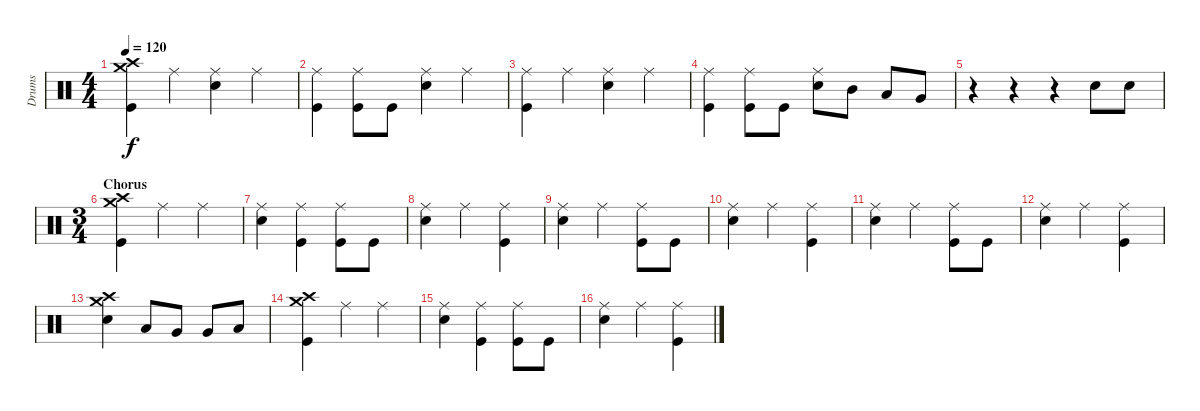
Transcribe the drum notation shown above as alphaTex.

\track ("Drums" "Drums") {instrument percussion}
\staff {score}
\articulation defaults
\ts (4 4)
\tempo 120
\clef neutral
\ks c
("Crash medium (hit)" "Crash high (hit)" "Kick (hit)").4{dy f} "Ride (middle)".4 ("Ride (middle)" "Snare (hit) 2").4 "Ride (middle)".4 |
("Ride (middle)" "Kick (hit)").4 ("Ride (middle)" "Kick (hit)").8 "Kick (hit)".8 ("Ride (middle)" "Snare (hit) 2").4 "Ride (middle)".4 |
("Ride (middle)" "Kick (hit)").4 "Ride (middle)".4 ("Ride (middle)" "Snare (hit) 2").4 "Ride (middle)".4 |
("Ride (middle)" "Kick (hit)").4 ("Ride (middle)" "Kick (hit)").8 "Kick (hit)".8 ("Ride (middle)" "Snare (hit) 2").8 "Mid Tom (hit)".8 "Low Tom (hit)".8 "Very Low Tom (hit)".8 |
r.4 r.4 r.4 "Snare (hit) 2".8 "Snare (hit) 2".8 |
\ts (3 4)
\section ("" "Chorus")
("Crash medium (hit)" "Crash high (hit)" "Kick (hit)").4 "Ride (middle)".4 "Ride (middle)".4 |
("Ride (middle)" "Snare (hit) 2").4 ("Ride (middle)" "Kick (hit)").4 ("Ride (middle)" "Kick (hit)").8 "Kick (hit)".8 |
("Ride (middle)" "Snare (hit) 2").4 "Ride (middle)".4 ("Ride (middle)" "Kick (hit)").4 |
("Ride (middle)" "Snare (hit) 2").4 "Ride (middle)".4 ("Ride (middle)" "Kick (hit)").8 "Kick (hit)".8 |
("Ride (middle)" "Snare (hit) 2").4 "Ride (middle)".4 ("Ride (middle)" "Kick (hit)").4 |
("Ride (middle)" "Snare (hit) 2").4 "Ride (middle)".4 ("Ride (middle)" "Kick (hit)").8 "Kick (hit)".8 |
("Ride (middle)" "Snare (hit) 2").4 "Ride (middle)".4 ("Ride (middle)" "Kick (hit)").4 |
("Crash medium (hit)" "Crash high (hit)" "Snare (hit) 2").4 "Low Tom (hit)".8 "Very Low Tom (hit)".8 "Very Low Tom (hit)".8 "Low Floor Tom (hit)".8 |
("Crash medium (hit)" "Crash high (hit)" "Kick (hit)").4 "Ride (middle)".4 "Ride (middle)".4 |
("Ride (middle)" "Snare (hit) 2").4 ("Ride (middle)" "Kick (hit)").4 ("Ride (middle)" "Kick (hit)").8 "Kick (hit)".8 |
("Ride (middle)" "Snare (hit) 2").4 "Ride (middle)".4 ("Ride (middle)" "Kick (hit)").4
